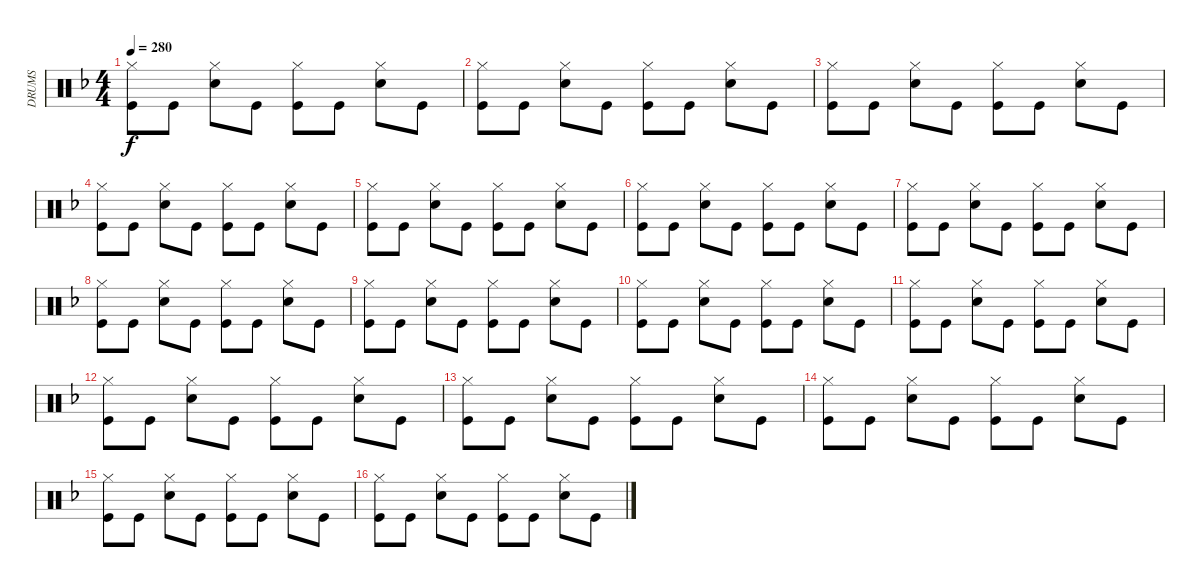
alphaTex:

\track ("DRUMS" "DRUMS") {instrument percussion}
\staff {score}
\articulation defaults
\ts (4 4)
\tempo 280
\clef neutral
\ks dminor
("Hi-Hat (closed)" "Kick (hit)").8{dy f} "Kick (hit)".8 ("Hi-Hat (closed)" "Snare (hit) 2").8 "Kick (hit)".8 ("Hi-Hat (closed)" "Kick (hit)").8 "Kick (hit)".8 ("Hi-Hat (closed)" "Snare (hit) 2").8 "Kick (hit)".8 |
("Hi-Hat (closed)" "Kick (hit)").8 "Kick (hit)".8 ("Hi-Hat (closed)" "Snare (hit) 2").8 "Kick (hit)".8 ("Hi-Hat (closed)" "Kick (hit)").8 "Kick (hit)".8 ("Hi-Hat (closed)" "Snare (hit) 2").8 "Kick (hit)".8 |
("Hi-Hat (closed)" "Kick (hit)").8 "Kick (hit)".8 ("Hi-Hat (closed)" "Snare (hit) 2").8 "Kick (hit)".8 ("Hi-Hat (closed)" "Kick (hit)").8 "Kick (hit)".8 ("Hi-Hat (closed)" "Snare (hit) 2").8 "Kick (hit)".8 |
("Hi-Hat (closed)" "Kick (hit)").8 "Kick (hit)".8 ("Hi-Hat (closed)" "Snare (hit) 2").8 "Kick (hit)".8 ("Hi-Hat (closed)" "Kick (hit)").8 "Kick (hit)".8 ("Hi-Hat (closed)" "Snare (hit) 2").8 "Kick (hit)".8 |
("Hi-Hat (closed)" "Kick (hit)").8 "Kick (hit)".8 ("Hi-Hat (closed)" "Snare (hit) 2").8 "Kick (hit)".8 ("Hi-Hat (closed)" "Kick (hit)").8 "Kick (hit)".8 ("Hi-Hat (closed)" "Snare (hit) 2").8 "Kick (hit)".8 |
("Hi-Hat (closed)" "Kick (hit)").8 "Kick (hit)".8 ("Hi-Hat (closed)" "Snare (hit) 2").8 "Kick (hit)".8 ("Hi-Hat (closed)" "Kick (hit)").8 "Kick (hit)".8 ("Hi-Hat (closed)" "Snare (hit) 2").8 "Kick (hit)".8 |
("Hi-Hat (closed)" "Kick (hit)").8 "Kick (hit)".8 ("Hi-Hat (closed)" "Snare (hit) 2").8 "Kick (hit)".8 ("Hi-Hat (closed)" "Kick (hit)").8 "Kick (hit)".8 ("Hi-Hat (closed)" "Snare (hit) 2").8 "Kick (hit)".8 |
("Hi-Hat (closed)" "Kick (hit)").8 "Kick (hit)".8 ("Hi-Hat (closed)" "Snare (hit) 2").8 "Kick (hit)".8 ("Hi-Hat (closed)" "Kick (hit)").8 "Kick (hit)".8 ("Hi-Hat (closed)" "Snare (hit) 2").8 "Kick (hit)".8 |
("Hi-Hat (closed)" "Kick (hit)").8 "Kick (hit)".8 ("Hi-Hat (closed)" "Snare (hit) 2").8 "Kick (hit)".8 ("Hi-Hat (closed)" "Kick (hit)").8 "Kick (hit)".8 ("Hi-Hat (closed)" "Snare (hit) 2").8 "Kick (hit)".8 |
("Hi-Hat (closed)" "Kick (hit)").8 "Kick (hit)".8 ("Hi-Hat (closed)" "Snare (hit) 2").8 "Kick (hit)".8 ("Hi-Hat (closed)" "Kick (hit)").8 "Kick (hit)".8 ("Hi-Hat (closed)" "Snare (hit) 2").8 "Kick (hit)".8 |
("Hi-Hat (closed)" "Kick (hit)").8 "Kick (hit)".8 ("Hi-Hat (closed)" "Snare (hit) 2").8 "Kick (hit)".8 ("Hi-Hat (closed)" "Kick (hit)").8 "Kick (hit)".8 ("Hi-Hat (closed)" "Snare (hit) 2").8 "Kick (hit)".8 |
("Hi-Hat (closed)" "Kick (hit)").8 "Kick (hit)".8 ("Hi-Hat (closed)" "Snare (hit) 2").8 "Kick (hit)".8 ("Hi-Hat (closed)" "Kick (hit)").8 "Kick (hit)".8 ("Hi-Hat (closed)" "Snare (hit) 2").8 "Kick (hit)".8 |
("Hi-Hat (closed)" "Kick (hit)").8 "Kick (hit)".8 ("Hi-Hat (closed)" "Snare (hit) 2").8 "Kick (hit)".8 ("Hi-Hat (closed)" "Kick (hit)").8 "Kick (hit)".8 ("Hi-Hat (closed)" "Snare (hit) 2").8 "Kick (hit)".8 |
("Hi-Hat (closed)" "Kick (hit)").8 "Kick (hit)".8 ("Hi-Hat (closed)" "Snare (hit) 2").8 "Kick (hit)".8 ("Hi-Hat (closed)" "Kick (hit)").8 "Kick (hit)".8 ("Hi-Hat (closed)" "Snare (hit) 2").8 "Kick (hit)".8 |
("Hi-Hat (closed)" "Kick (hit)").8 "Kick (hit)".8 ("Hi-Hat (closed)" "Snare (hit) 2").8 "Kick (hit)".8 ("Hi-Hat (closed)" "Kick (hit)").8 "Kick (hit)".8 ("Hi-Hat (closed)" "Snare (hit) 2").8 "Kick (hit)".8 |
("Hi-Hat (closed)" "Kick (hit)").8 "Kick (hit)".8 ("Hi-Hat (closed)" "Snare (hit) 2").8 "Kick (hit)".8 ("Hi-Hat (closed)" "Kick (hit)").8 "Kick (hit)".8 ("Hi-Hat (closed)" "Snare (hit) 2").8 "Kick (hit)".8
